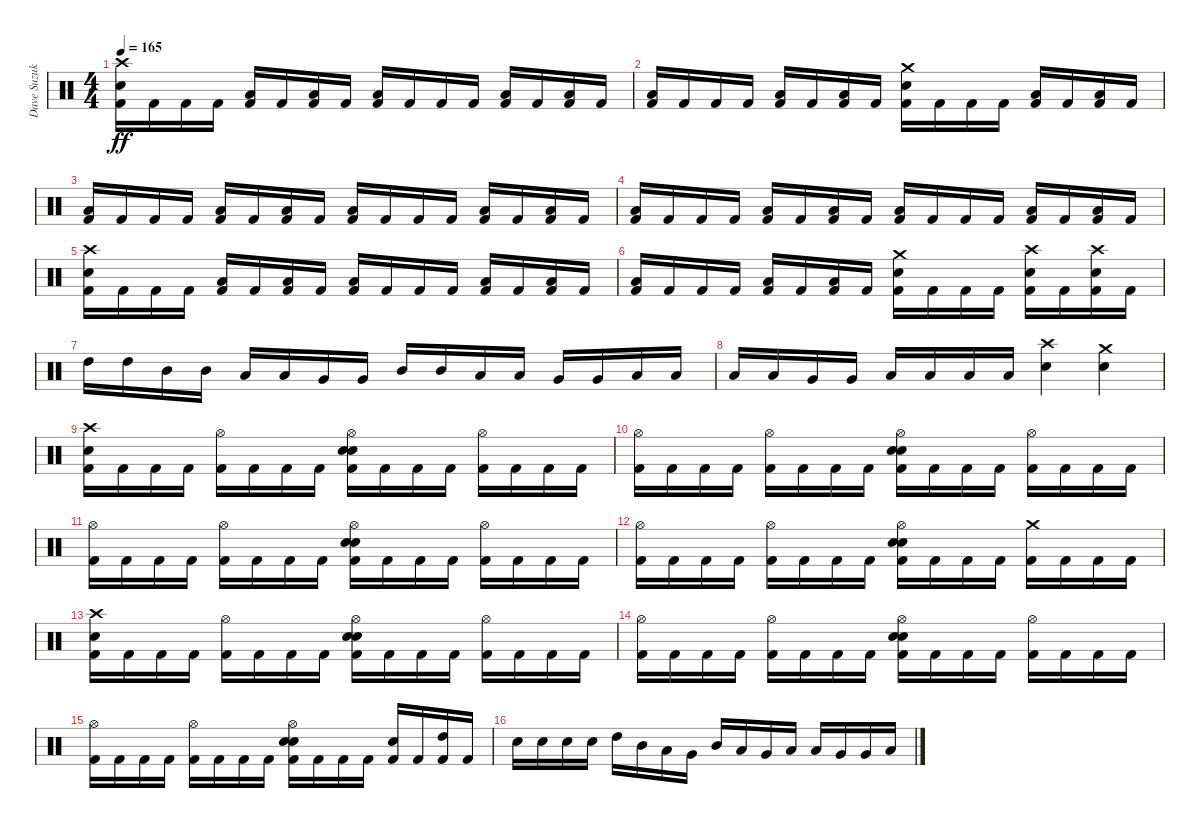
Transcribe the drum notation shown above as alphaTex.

\track ("Dave Suzuki - Drums" "Dave Suzuk") {instrument percussion}
\staff {score}
\articulation defaults
\ts (4 4)
\tempo 165
\clef neutral
\ks c
("Crash high (hit)" "Electric Snare (hit)" "Kick (hit) 2").16{dy ff} "Kick (hit) 2".16 "Kick (hit) 2".16 "Kick (hit) 2".16 ("Low Tom (hit)" "Kick (hit) 2").16 "Kick (hit) 2".16 ("Low Tom (hit)" "Kick (hit) 2").16 "Kick (hit) 2".16 ("Low Tom (hit)" "Kick (hit) 2").16 "Kick (hit) 2".16 "Kick (hit) 2".16 "Kick (hit) 2".16 ("Low Tom (hit)" "Kick (hit) 2").16 "Kick (hit) 2".16 ("Low Tom (hit)" "Kick (hit) 2").16 "Kick (hit) 2".16 |
("Low Tom (hit)" "Kick (hit) 2").16 "Kick (hit) 2".16 "Kick (hit) 2".16 "Kick (hit) 2".16 ("Low Tom (hit)" "Kick (hit) 2").16 "Kick (hit) 2".16 ("Low Tom (hit)" "Kick (hit) 2").16 "Kick (hit) 2".16 ("Crash medium (hit)" "Electric Snare (hit)" "Kick (hit) 2").16 "Kick (hit) 2".16 "Kick (hit) 2".16 "Kick (hit) 2".16 ("Low Tom (hit)" "Kick (hit) 2").16 "Kick (hit) 2".16 ("Low Tom (hit)" "Kick (hit) 2").16 "Kick (hit) 2".16 |
("Low Tom (hit)" "Kick (hit) 2").16 "Kick (hit) 2".16 "Kick (hit) 2".16 "Kick (hit) 2".16 ("Low Tom (hit)" "Kick (hit) 2").16 "Kick (hit) 2".16 ("Low Tom (hit)" "Kick (hit) 2").16 "Kick (hit) 2".16 ("Low Tom (hit)" "Kick (hit) 2").16 "Kick (hit) 2".16 "Kick (hit) 2".16 "Kick (hit) 2".16 ("Low Tom (hit)" "Kick (hit) 2").16 "Kick (hit) 2".16 ("Low Tom (hit)" "Kick (hit) 2").16 "Kick (hit) 2".16 |
("Low Tom (hit)" "Kick (hit) 2").16 "Kick (hit) 2".16 "Kick (hit) 2".16 "Kick (hit) 2".16 ("Low Tom (hit)" "Kick (hit) 2").16 "Kick (hit) 2".16 ("Low Tom (hit)" "Kick (hit) 2").16 "Kick (hit) 2".16 ("Low Tom (hit)" "Kick (hit) 2").16 "Kick (hit) 2".16 "Kick (hit) 2".16 "Kick (hit) 2".16 ("Low Tom (hit)" "Kick (hit) 2").16 "Kick (hit) 2".16 ("Low Tom (hit)" "Kick (hit) 2").16 "Kick (hit) 2".16 |
("Crash high (hit)" "Electric Snare (hit)" "Kick (hit) 2").16 "Kick (hit) 2".16 "Kick (hit) 2".16 "Kick (hit) 2".16 ("Low Tom (hit)" "Kick (hit) 2").16 "Kick (hit) 2".16 ("Low Tom (hit)" "Kick (hit) 2").16 "Kick (hit) 2".16 ("Low Tom (hit)" "Kick (hit) 2").16 "Kick (hit) 2".16 "Kick (hit) 2".16 "Kick (hit) 2".16 ("Low Tom (hit)" "Kick (hit) 2").16 "Kick (hit) 2".16 ("Low Tom (hit)" "Kick (hit) 2").16 "Kick (hit) 2".16 |
("Low Tom (hit)" "Kick (hit) 2").16 "Kick (hit) 2".16 "Kick (hit) 2".16 "Kick (hit) 2".16 ("Low Tom (hit)" "Kick (hit) 2").16 "Kick (hit) 2".16 ("Low Tom (hit)" "Kick (hit) 2").16 "Kick (hit) 2".16 ("Crash medium (hit)" "Electric Snare (hit)" "Kick (hit) 2").16 "Kick (hit) 2".16 "Kick (hit) 2".16 "Kick (hit) 2".16 ("Crash high (hit)" "Electric Snare (hit)" "Kick (hit) 2").16 "Kick (hit) 2".16 ("Crash high (hit)" "Electric Snare (hit)" "Kick (hit) 2").16 "Kick (hit) 2".16 |
"High Tom (hit)".16 "High Tom (hit)".16 "Mid Tom (hit)".16 "Mid Tom (hit)".16 "Low Tom (hit)".16 "Low Tom (hit)".16 "Very Low Tom (hit)".16 "Very Low Tom (hit)".16 "Mid Tom (hit)".16 "Mid Tom (hit)".16 "Low Tom (hit)".16 "Low Tom (hit)".16 "Very Low Tom (hit)".16 "Very Low Tom (hit)".16 "Low Floor Tom (hit)".16 "Low Floor Tom (hit)".16 |
"Low Tom (hit)".16 "Low Tom (hit)".16 "Very Low Tom (hit)".16 "Very Low Tom (hit)".16 "Low Floor Tom (hit)".16 "Low Floor Tom (hit)".16 "Low Floor Tom (hit)".16 "Low Floor Tom (hit)".16 ("Crash high (hit)" "Electric Snare (hit)").4 ("Crash medium (hit)" "Electric Snare (hit)").4 |
("Crash high (hit)" "Electric Snare (hit)" "Kick (hit) 2").16 "Kick (hit) 2".16 "Kick (hit) 2".16 "Kick (hit) 2".16 ("Hi-Hat (open)" "Kick (hit) 2").16 "Kick (hit) 2".16 "Kick (hit) 2".16 "Kick (hit) 2".16 ("Hi-Hat (open)" "Electric Snare (hit)" "Electric Snare (hit)" "Kick (hit) 2").16 "Kick (hit) 2".16 "Kick (hit) 2".16 "Kick (hit) 2".16 ("Hi-Hat (open)" "Kick (hit) 2").16 "Kick (hit) 2".16 "Kick (hit) 2".16 "Kick (hit) 2".16 |
("Hi-Hat (open)" "Kick (hit) 2").16 "Kick (hit) 2".16 "Kick (hit) 2".16 "Kick (hit) 2".16 ("Hi-Hat (open)" "Kick (hit) 2").16 "Kick (hit) 2".16 "Kick (hit) 2".16 "Kick (hit) 2".16 ("Hi-Hat (open)" "Electric Snare (hit)" "Electric Snare (hit)" "Kick (hit) 2").16 "Kick (hit) 2".16 "Kick (hit) 2".16 "Kick (hit) 2".16 ("Hi-Hat (open)" "Kick (hit) 2").16 "Kick (hit) 2".16 "Kick (hit) 2".16 "Kick (hit) 2".16 |
("Hi-Hat (open)" "Kick (hit) 2").16 "Kick (hit) 2".16 "Kick (hit) 2".16 "Kick (hit) 2".16 ("Hi-Hat (open)" "Kick (hit) 2").16 "Kick (hit) 2".16 "Kick (hit) 2".16 "Kick (hit) 2".16 ("Hi-Hat (open)" "Electric Snare (hit)" "Electric Snare (hit)" "Kick (hit) 2").16 "Kick (hit) 2".16 "Kick (hit) 2".16 "Kick (hit) 2".16 ("Hi-Hat (open)" "Kick (hit) 2").16 "Kick (hit) 2".16 "Kick (hit) 2".16 "Kick (hit) 2".16 |
("Hi-Hat (open)" "Kick (hit) 2").16 "Kick (hit) 2".16 "Kick (hit) 2".16 "Kick (hit) 2".16 ("Hi-Hat (open)" "Kick (hit) 2").16 "Kick (hit) 2".16 "Kick (hit) 2".16 "Kick (hit) 2".16 ("Hi-Hat (open)" "Electric Snare (hit)" "Electric Snare (hit)" "Kick (hit) 2").16 "Kick (hit) 2".16 "Kick (hit) 2".16 "Kick (hit) 2".16 ("Crash medium (hit)" "Kick (hit) 2").16 "Kick (hit) 2".16 "Kick (hit) 2".16 "Kick (hit) 2".16 |
("Crash high (hit)" "Electric Snare (hit)" "Kick (hit) 2").16 "Kick (hit) 2".16 "Kick (hit) 2".16 "Kick (hit) 2".16 ("Hi-Hat (open)" "Kick (hit) 2").16 "Kick (hit) 2".16 "Kick (hit) 2".16 "Kick (hit) 2".16 ("Hi-Hat (open)" "Electric Snare (hit)" "Electric Snare (hit)" "Kick (hit) 2").16 "Kick (hit) 2".16 "Kick (hit) 2".16 "Kick (hit) 2".16 ("Hi-Hat (open)" "Kick (hit) 2").16 "Kick (hit) 2".16 "Kick (hit) 2".16 "Kick (hit) 2".16 |
("Hi-Hat (open)" "Kick (hit) 2").16 "Kick (hit) 2".16 "Kick (hit) 2".16 "Kick (hit) 2".16 ("Hi-Hat (open)" "Kick (hit) 2").16 "Kick (hit) 2".16 "Kick (hit) 2".16 "Kick (hit) 2".16 ("Hi-Hat (open)" "Electric Snare (hit)" "Electric Snare (hit)" "Kick (hit) 2").16 "Kick (hit) 2".16 "Kick (hit) 2".16 "Kick (hit) 2".16 ("Hi-Hat (open)" "Kick (hit) 2").16 "Kick (hit) 2".16 "Kick (hit) 2".16 "Kick (hit) 2".16 |
("Hi-Hat (open)" "Kick (hit) 2").16 "Kick (hit) 2".16 "Kick (hit) 2".16 "Kick (hit) 2".16 ("Hi-Hat (open)" "Kick (hit) 2").16 "Kick (hit) 2".16 "Kick (hit) 2".16 "Kick (hit) 2".16 ("Hi-Hat (open)" "Electric Snare (hit)" "Electric Snare (hit)" "Kick (hit) 2").16 "Kick (hit) 2".16 "Kick (hit) 2".16 "Kick (hit) 2".16 ("Electric Snare (hit)" "Kick (hit) 2").16 "Kick (hit) 2".16 ("High Tom (hit)" "Kick (hit) 2").16 "Kick (hit) 2".16 |
"Electric Snare (hit)".16 "Electric Snare (hit)".16 "Electric Snare (hit)".16 "Electric Snare (hit)".16 "High Tom (hit)".16 "Mid Tom (hit)".16 "Low Tom (hit)".16 "Very Low Tom (hit)".16 "Mid Tom (hit)".16 "Low Tom (hit)".16 "Very Low Tom (hit)".16 "Low Floor Tom (hit)".16 "Low Tom (hit)".16 "Very Low Tom (hit)".16 "Very Low Tom (hit)".16 "Low Floor Tom (hit)".16
